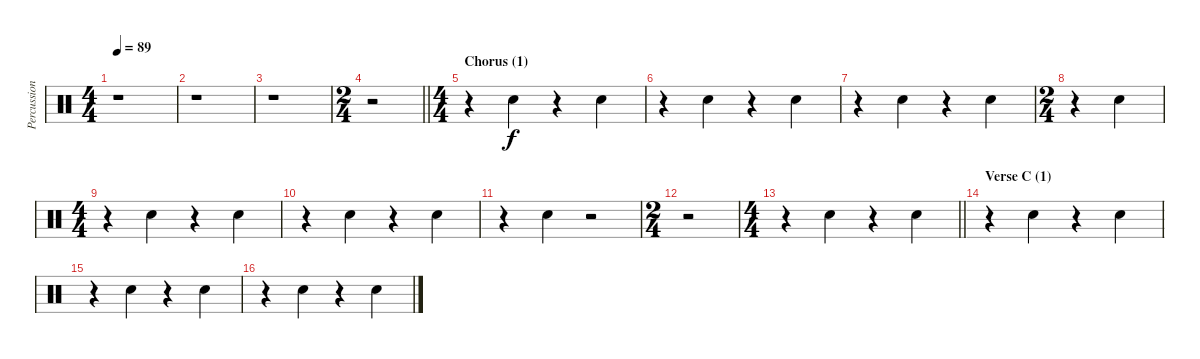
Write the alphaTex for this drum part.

\track ("Percussion" "Percussion") {instrument percussion}
\staff {score}
\articulation defaults
\ts (4 4)
\tempo 89
\clef neutral
\ks c
r.1{dy f} |
r.1 |
r.1 |
\ts (2 4)
\barLineRight lightlight
r.2 |
\ts (4 4)
\section ("" "Chorus (1)")
r.4 "Hand Clap (hit)".4 r.4 "Hand Clap (hit)".4 |
r.4 "Hand Clap (hit)".4 r.4 "Hand Clap (hit)".4 |
r.4 "Hand Clap (hit)".4 r.4 "Hand Clap (hit)".4 |
\ts (2 4)
r.4 "Hand Clap (hit)".4 |
\ts (4 4)
r.4 "Hand Clap (hit)".4 r.4 "Hand Clap (hit)".4 |
r.4 "Hand Clap (hit)".4 r.4 "Hand Clap (hit)".4 |
r.4 "Hand Clap (hit)".4 r.2 |
\ts (2 4)
r.2 |
\ts (4 4)
\barLineRight lightlight
r.4 "Hand Clap (hit)".4 r.4 "Hand Clap (hit)".4 |
\section ("" "Verse C (1)")
r.4 "Hand Clap (hit)".4 r.4 "Hand Clap (hit)".4 |
r.4 "Hand Clap (hit)".4 r.4 "Hand Clap (hit)".4 |
r.4 "Hand Clap (hit)".4 r.4 "Hand Clap (hit)".4
